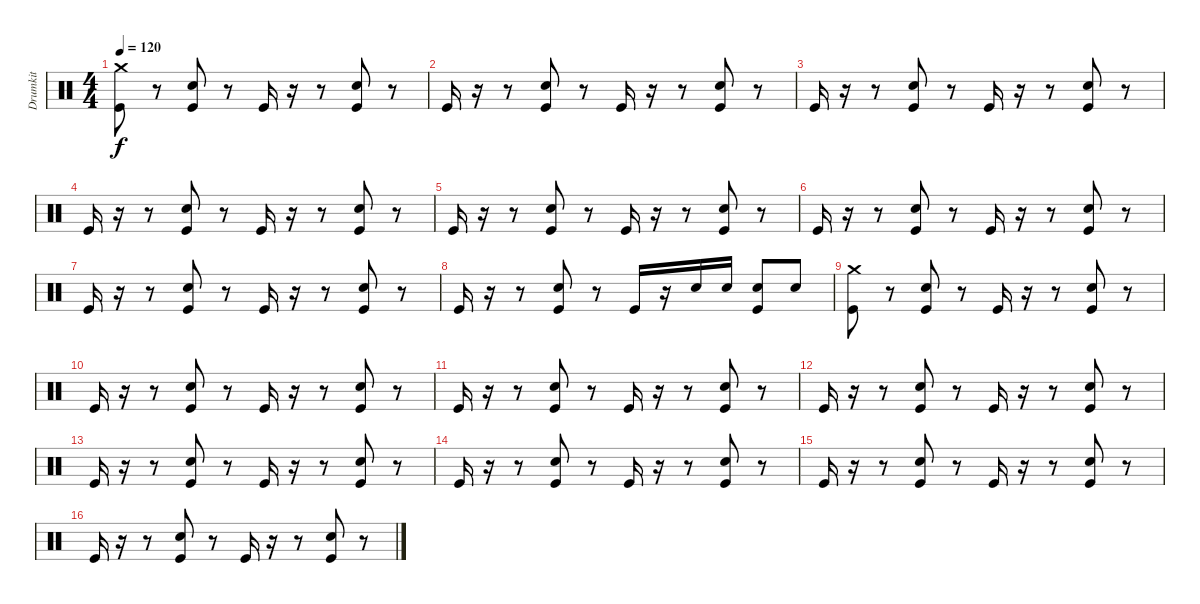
\track ("Drumkit" "Drumkit") {instrument percussion}
\staff {score}
\articulation defaults
\ts (4 4)
\tempo 120
\clef neutral
\ks c
("Kick (hit)" "Crash medium (hit)").8{dy f} r.8 ("Kick (hit)" "Snare (hit) 2").8 r.8 "Kick (hit)".16 r.16 r.8 ("Kick (hit)" "Snare (hit) 2").8 r.8 |
"Kick (hit)".16 r.16 r.8 ("Kick (hit)" "Snare (hit) 2").8 r.8 "Kick (hit)".16 r.16 r.8 ("Kick (hit)" "Snare (hit) 2").8 r.8 |
"Kick (hit)".16 r.16 r.8 ("Kick (hit)" "Snare (hit) 2").8 r.8 "Kick (hit)".16 r.16 r.8 ("Kick (hit)" "Snare (hit) 2").8 r.8 |
"Kick (hit)".16 r.16 r.8 ("Kick (hit)" "Snare (hit) 2").8 r.8 "Kick (hit)".16 r.16 r.8 ("Kick (hit)" "Snare (hit) 2").8 r.8 |
"Kick (hit)".16 r.16 r.8 ("Kick (hit)" "Snare (hit) 2").8 r.8 "Kick (hit)".16 r.16 r.8 ("Kick (hit)" "Snare (hit) 2").8 r.8 |
"Kick (hit)".16 r.16 r.8 ("Kick (hit)" "Snare (hit) 2").8 r.8 "Kick (hit)".16 r.16 r.8 ("Kick (hit)" "Snare (hit) 2").8 r.8 |
"Kick (hit)".16 r.16 r.8 ("Kick (hit)" "Snare (hit) 2").8 r.8 "Kick (hit)".16 r.16 r.8 ("Kick (hit)" "Snare (hit) 2").8 r.8 |
"Kick (hit)".16 r.16 r.8 ("Kick (hit)" "Snare (hit) 2").8 r.8 "Kick (hit)".16 r.16 "Snare (hit) 2".16 "Snare (hit) 2".16 ("Kick (hit)" "Snare (hit) 2").8 "Snare (hit) 2".8 |
("Kick (hit)" "Crash medium (hit)").8 r.8 ("Kick (hit)" "Snare (hit) 2").8 r.8 "Kick (hit)".16 r.16 r.8 ("Kick (hit)" "Snare (hit) 2").8 r.8 |
"Kick (hit)".16 r.16 r.8 ("Kick (hit)" "Snare (hit) 2").8 r.8 "Kick (hit)".16 r.16 r.8 ("Kick (hit)" "Snare (hit) 2").8 r.8 |
"Kick (hit)".16 r.16 r.8 ("Kick (hit)" "Snare (hit) 2").8 r.8 "Kick (hit)".16 r.16 r.8 ("Kick (hit)" "Snare (hit) 2").8 r.8 |
"Kick (hit)".16 r.16 r.8 ("Kick (hit)" "Snare (hit) 2").8 r.8 "Kick (hit)".16 r.16 r.8 ("Kick (hit)" "Snare (hit) 2").8 r.8 |
"Kick (hit)".16 r.16 r.8 ("Kick (hit)" "Snare (hit) 2").8 r.8 "Kick (hit)".16 r.16 r.8 ("Kick (hit)" "Snare (hit) 2").8 r.8 |
"Kick (hit)".16 r.16 r.8 ("Kick (hit)" "Snare (hit) 2").8 r.8 "Kick (hit)".16 r.16 r.8 ("Kick (hit)" "Snare (hit) 2").8 r.8 |
"Kick (hit)".16 r.16 r.8 ("Kick (hit)" "Snare (hit) 2").8 r.8 "Kick (hit)".16 r.16 r.8 ("Kick (hit)" "Snare (hit) 2").8 r.8 |
"Kick (hit)".16 r.16 r.8 ("Kick (hit)" "Snare (hit) 2").8 r.8 "Kick (hit)".16 r.16 r.8 ("Kick (hit)" "Snare (hit) 2").8 r.8
